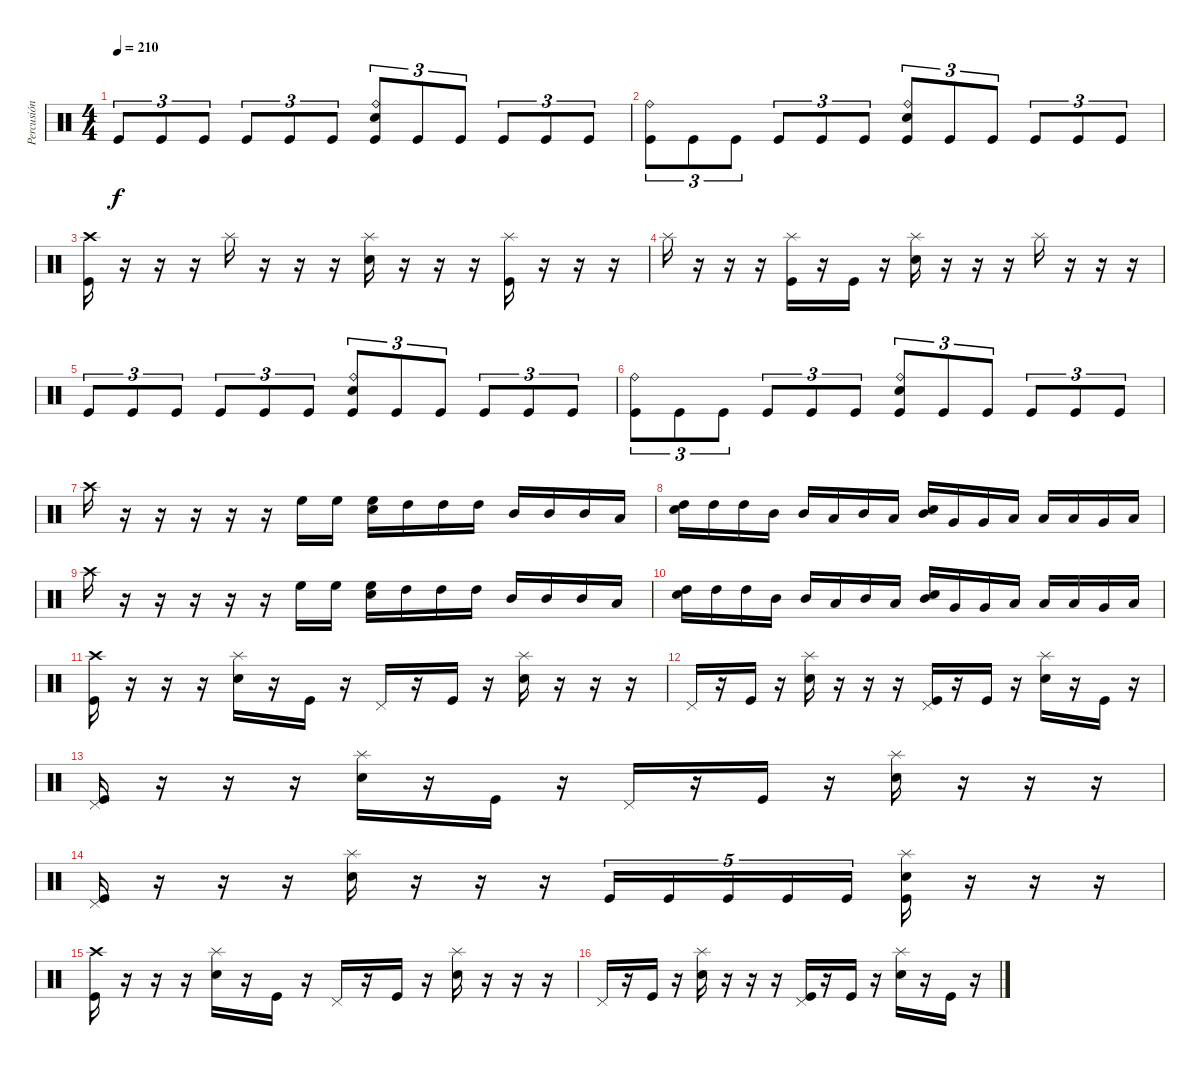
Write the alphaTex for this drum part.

\track ("Percusión" "Percusión") {instrument percussion}
\staff {score}
\articulation defaults
\ts (4 4)
\tempo 210
\clef neutral
\ks c "Kick (hit)".8{tu (3 2) dy f} "Kick (hit)".8{tu (3 2)} "Kick (hit)".8{tu (3 2)} "Kick (hit)".8{tu (3 2)} "Kick (hit)".8{tu (3 2)} "Kick (hit)".8{tu (3 2)}
("Ride (bell)" "Snare (hit) 2" "Kick (hit)").8{tu (3 2)} "Kick (hit)".8{tu (3 2)} "Kick (hit)".8{tu (3 2)} "Kick (hit)".8{tu (3 2)} "Kick (hit)".8{tu (3 2)} "Kick (hit)".8{tu (3 2)} |
("Ride (bell)" "Kick (hit)").8{tu (3 2)} "Kick (hit)".8{tu (3 2)} "Kick (hit)".8{tu (3 2)} "Kick (hit)".8{tu (3 2)} "Kick (hit)".8{tu (3 2)} "Kick (hit)".8{tu (3 2)} ("Ride (bell)" "Snare (hit) 2" "Kick (hit)").8{tu (3 2)} "Kick (hit)".8{tu (3 2)} "Kick (hit)".8{tu (3 2)} "Kick (hit)".8{tu (3 2)} "Kick (hit)".8{tu (3 2)} "Kick (hit)".8{tu (3 2)} |
("Crash high (hit)" "Kick (hit)").16 r.16 r.16 r.16 "Splash (hit)".16 r.16 r.16 r.16 ("Splash (hit)" "Snare (hit) 2").16 r.16 r.16 r.16 ("Splash (hit)" "Kick (hit)").16 r.16 r.16 r.16 |
"Splash (hit)".16 r.16 r.16 r.16 ("Splash (hit)" "Kick (hit)").16 r.16 "Kick (hit)".16 r.16 ("Splash (hit)" "Snare (hit) 2").16 r.16 r.16 r.16 "Splash (hit)".16 r.16 r.16 r.16 |
"Kick (hit)".8{tu (3 2)} "Kick (hit)".8{tu (3 2)} "Kick (hit)".8{tu (3 2)} "Kick (hit)".8{tu (3 2)} "Kick (hit)".8{tu (3 2)} "Kick (hit)".8{tu (3 2)} ("Ride (bell)" "Snare (hit) 2" "Kick (hit)").8{tu (3 2)} "Kick (hit)".8{tu (3 2)} "Kick (hit)".8{tu (3 2)} "Kick (hit)".8{tu (3 2)} "Kick (hit)".8{tu (3 2)} "Kick (hit)".8{tu (3 2)} |
("Ride (bell)" "Kick (hit)").8{tu (3 2)} "Kick (hit)".8{tu (3 2)} "Kick (hit)".8{tu (3 2)} "Kick (hit)".8{tu (3 2)} "Kick (hit)".8{tu (3 2)} "Kick (hit)".8{tu (3 2)} ("Ride (bell)" "Snare (hit) 2" "Kick (hit)").8{tu (3 2)} "Kick (hit)".8{tu (3 2)} "Kick (hit)".8{tu (3 2)} "Kick (hit)".8{tu (3 2)} "Kick (hit)".8{tu (3 2)} "Kick (hit)".8{tu (3 2)} |
"Crash high (hit)".16 r.16 r.16 r.16 r.16 r.16 "High Floor Tom (hit)".16 "High Floor Tom (hit)".16 ("High Floor Tom (hit)" "Snare (hit) 2").16 "High Tom (hit)".16 "High Tom (hit)".16 "High Tom (hit)".16 "Mid Tom (hit)".16 "Mid Tom (hit)".16 "Mid Tom (hit)".16 "Low Tom (hit)".16 |
("High Tom (hit)" "Snare (hit) 2").16 "High Tom (hit)".16 "High Tom (hit)".16 "Mid Tom (hit)".16 "Mid Tom (hit)".16 "Low Tom (hit)".16 "Mid Tom (hit)".16 "Low Tom (hit)".16 ("Mid Tom (hit)" "Snare (hit) 2").16 "Very Low Tom (hit)".16 "Very Low Tom (hit)".16 "Low Floor Tom (hit)".16 "Low Floor Tom (hit)".16 "Low Tom (hit)".16 "Very Low Tom (hit)".16 "Low Floor Tom (hit)".16 |
"Crash high (hit)".16 r.16 r.16 r.16 r.16 r.16 "High Floor Tom (hit)".16 "High Floor Tom (hit)".16 ("High Floor Tom (hit)" "Snare (hit) 2").16 "High Tom (hit)".16 "High Tom (hit)".16 "High Tom (hit)".16 "Mid Tom (hit)".16 "Mid Tom (hit)".16 "Mid Tom (hit)".16 "Low Tom (hit)".16 |
("High Tom (hit)" "Snare (hit) 2").16 "High Tom (hit)".16 "High Tom (hit)".16 "Mid Tom (hit)".16 "Mid Tom (hit)".16 "Low Tom (hit)".16 "Mid Tom (hit)".16 "Low Tom (hit)".16 ("Mid Tom (hit)" "Snare (hit) 2").16 "Very Low Tom (hit)".16 "Very Low Tom (hit)".16 "Low Floor Tom (hit)".16 "Low Floor Tom (hit)".16 "Low Tom (hit)".16 "Very Low Tom (hit)".16 "Low Floor Tom (hit)".16 |
("Crash high (hit)" "Kick (hit)").16 r.16 r.16 r.16 ("Splash (hit)" "Snare (hit) 2").16 r.16 "Kick (hit)".16 r.16 "Pedal Hi-Hat (hit)".16 r.16 "Kick (hit)".16 r.16 ("Splash (hit)" "Snare (hit) 2").16 r.16 r.16 r.16 |
"Pedal Hi-Hat (hit)".16 r.16 "Kick (hit)".16 r.16 ("Splash (hit)" "Snare (hit) 2").16 r.16 r.16 r.16 ("Pedal Hi-Hat (hit)" "Kick (hit)").16 r.16 "Kick (hit)".16 r.16 ("Splash (hit)" "Snare (hit) 2").16 r.16 "Kick (hit)".16 r.16 |
("Pedal Hi-Hat (hit)" "Kick (hit)").16 r.16 r.16 r.16 ("Splash (hit)" "Snare (hit) 2").16 r.16 "Kick (hit)".16 r.16 "Pedal Hi-Hat (hit)".16 r.16 "Kick (hit)".16 r.16 ("Splash (hit)" "Snare (hit) 2").16 r.16 r.16 r.16 |
("Pedal Hi-Hat (hit)" "Kick (hit)").16 r.16 r.16 r.16 ("Splash (hit)" "Snare (hit) 2").16 r.16 r.16 r.16 "Kick (hit)".16{tu (5 4)} "Kick (hit)".16{tu (5 4)} "Kick (hit)".16{tu (5 4)} "Kick (hit)".16{tu (5 4)} "Kick (hit)".16{tu (5 4)} ("Splash (hit)" "Snare (hit) 2" "Kick (hit)").16 r.16 r.16 r.16 |
("Crash high (hit)" "Kick (hit)").16 r.16 r.16 r.16 ("Splash (hit)" "Snare (hit) 2").16 r.16 "Kick (hit)".16 r.16 "Pedal Hi-Hat (hit)".16 r.16 "Kick (hit)".16 r.16 ("Splash (hit)" "Snare (hit) 2").16 r.16 r.16 r.16 |
"Pedal Hi-Hat (hit)".16 r.16 "Kick (hit)".16 r.16 ("Splash (hit)" "Snare (hit) 2").16 r.16 r.16 r.16 ("Pedal Hi-Hat (hit)" "Kick (hit)").16 r.16 "Kick (hit)".16 r.16 ("Splash (hit)" "Snare (hit) 2").16 r.16 "Kick (hit)".16 r.16
